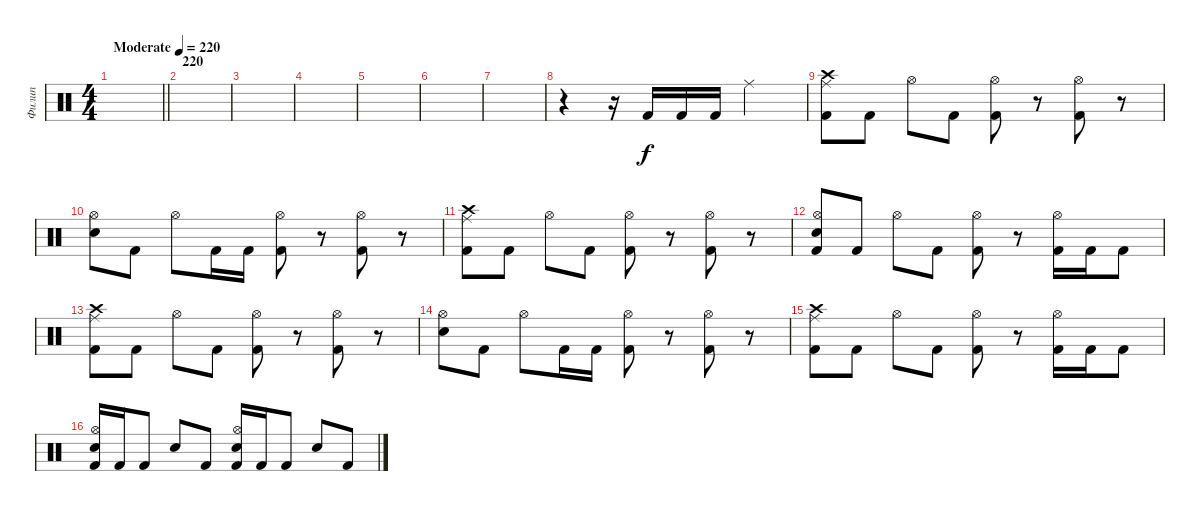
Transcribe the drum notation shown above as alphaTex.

\track ("Филип" "Филип") {instrument percussion}
\staff {score}
\articulation defaults
\ts (4 4)
\tempo (220 "Moderate")
\clef neutral
\barLineRight lightlight
\ks c
|
\section ("" "220")
|
|
|
|
|
|
r.4 r.16 "Kick (hit) 2".16 "Kick (hit) 2".16 "Kick (hit) 2".16 "Ride (middle)".2 |
("Crash high (hit)" "Ride (middle)" "Kick (hit) 2").8 "Kick (hit) 2".8 "Hi-Hat (open)".8 "Kick (hit) 2".8 ("Kick (hit) 2" "Hi-Hat (open)").8 r.8 ("Hi-Hat (open)" "Kick (hit) 2").8 r.8 |
("Hi-Hat (open)" "Electric Snare (hit)").8 "Kick (hit) 2".8 "Hi-Hat (open)".8 "Kick (hit) 2".16 "Kick (hit) 2".16 ("Kick (hit) 2" "Hi-Hat (open)").8 r.8 ("Hi-Hat (open)" "Kick (hit) 2").8 r.8 |
("Crash high (hit)" "Ride (middle)" "Kick (hit) 2").8 "Kick (hit) 2".8 "Hi-Hat (open)".8 "Kick (hit) 2".8 ("Kick (hit) 2" "Hi-Hat (open)").8 r.8 ("Hi-Hat (open)" "Kick (hit) 2").8 r.8 |
("Kick (hit) 2" "Hi-Hat (open)" "Electric Snare (hit)").8 "Kick (hit) 2".8 "Hi-Hat (open)".8 "Kick (hit) 2".8 ("Kick (hit) 2" "Hi-Hat (open)").8 r.8 ("Hi-Hat (open)" "Kick (hit) 2").16 "Kick (hit) 2".16 "Kick (hit) 2".8 |
("Crash high (hit)" "Ride (middle)" "Kick (hit) 2").8 "Kick (hit) 2".8 "Hi-Hat (open)".8 "Kick (hit) 2".8 ("Kick (hit) 2" "Hi-Hat (open)").8 r.8 ("Hi-Hat (open)" "Kick (hit) 2").8 r.8 |
("Hi-Hat (open)" "Electric Snare (hit)").8 "Kick (hit) 2".8 "Hi-Hat (open)".8 "Kick (hit) 2".16 "Kick (hit) 2".16 ("Kick (hit) 2" "Hi-Hat (open)").8 r.8 ("Hi-Hat (open)" "Kick (hit) 2").8 r.8 |
("Crash high (hit)" "Ride (middle)" "Kick (hit) 2").8 "Kick (hit) 2".8 "Hi-Hat (open)".8 "Kick (hit) 2".8 ("Kick (hit) 2" "Hi-Hat (open)").8 r.8 ("Hi-Hat (open)" "Kick (hit) 2").16 "Kick (hit) 2".16 "Kick (hit) 2".8 |
("Snare (hit) 2" "Hi-Hat (open)" "Kick (hit) 2").16 "Kick (hit) 2".16 "Kick (hit) 2".8 "Snare (hit) 2".8 "Kick (hit) 2".8 ("Snare (hit) 2" "Hi-Hat (open)" "Kick (hit) 2").16 "Kick (hit) 2".16 "Kick (hit) 2".8 "Snare (hit) 2".8 "Kick (hit) 2".8
